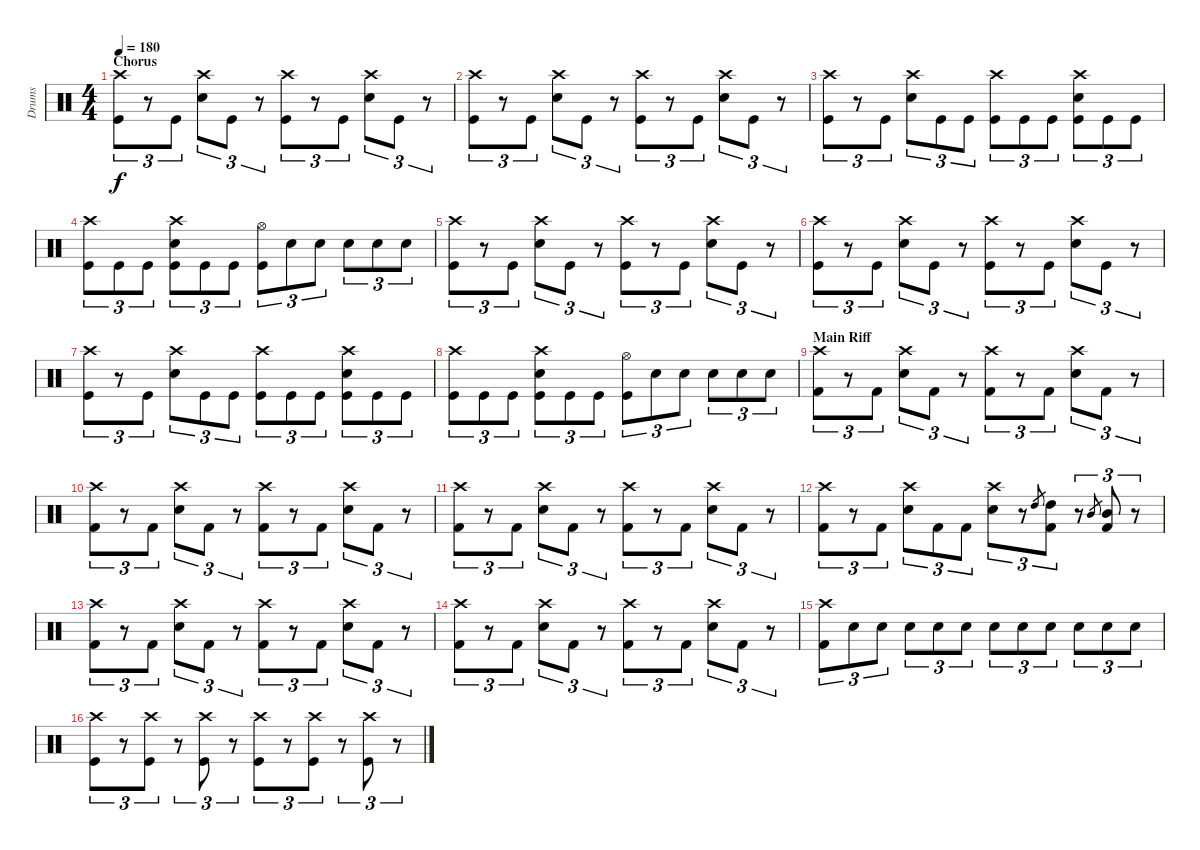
\track ("Drums" "Drums") {instrument percussion}
\staff {score}
\articulation defaults
\ts (4 4)
\section ("" "Chorus")
\tempo 180
\clef neutral
\ks c
("Crash high (hit)" "Kick (hit)").8{tu (3 2) dy f} r.8{tu (3 2)} "Kick (hit)".8{tu (3 2)} ("Crash high (hit)" "Snare (hit) 2").8{tu (3 2)} "Kick (hit)".8{tu (3 2)} r.8{tu (3 2)} ("Crash high (hit)" "Kick (hit)").8{tu (3 2)} r.8{tu (3 2)} "Kick (hit)".8{tu (3 2)} ("Crash high (hit)" "Snare (hit) 2").8{tu (3 2)} "Kick (hit)".8{tu (3 2)} r.8{tu (3 2)} |
("Crash high (hit)" "Kick (hit)").8{tu (3 2)} r.8{tu (3 2)} "Kick (hit)".8{tu (3 2)} ("Crash high (hit)" "Snare (hit) 2").8{tu (3 2)} "Kick (hit)".8{tu (3 2)} r.8{tu (3 2)} ("Crash high (hit)" "Kick (hit)").8{tu (3 2)} r.8{tu (3 2)} "Kick (hit)".8{tu (3 2)} ("Crash high (hit)" "Snare (hit) 2").8{tu (3 2)} "Kick (hit)".8{tu (3 2)} r.8{tu (3 2)} |
("Crash high (hit)" "Kick (hit)").8{tu (3 2)} r.8{tu (3 2)} "Kick (hit)".8{tu (3 2)} ("Crash high (hit)" "Snare (hit) 2").8{tu (3 2)} "Kick (hit)".8{tu (3 2)} "Kick (hit)".8{tu (3 2)} ("Crash high (hit)" "Kick (hit)").8{tu (3 2)} "Kick (hit)".8{tu (3 2)} "Kick (hit)".8{tu (3 2)} ("Crash high (hit)" "Snare (hit) 2" "Kick (hit)").8{tu (3 2)} "Kick (hit)".8{tu (3 2)} "Kick (hit)".8{tu (3 2)} |
("Crash high (hit)" "Kick (hit)").8{tu (3 2)} "Kick (hit)".8{tu (3 2)} "Kick (hit)".8{tu (3 2)} ("Crash high (hit)" "Snare (hit) 2" "Kick (hit)").8{tu (3 2)} "Kick (hit)".8{tu (3 2)} "Kick (hit)".8{tu (3 2)} ("Hi-Hat (open)" "Kick (hit)").8{tu (3 2)} "Snare (hit) 2".8{tu (3 2)} "Snare (hit) 2".8{tu (3 2)} "Snare (hit) 2".8{tu (3 2)} "Snare (hit) 2".8{tu (3 2)} "Snare (hit) 2".8{tu (3 2)} |
("Crash high (hit)" "Kick (hit)").8{tu (3 2)} r.8{tu (3 2)} "Kick (hit)".8{tu (3 2)} ("Crash high (hit)" "Snare (hit) 2").8{tu (3 2)} "Kick (hit)".8{tu (3 2)} r.8{tu (3 2)} ("Crash high (hit)" "Kick (hit)").8{tu (3 2)} r.8{tu (3 2)} "Kick (hit)".8{tu (3 2)} ("Crash high (hit)" "Snare (hit) 2").8{tu (3 2)} "Kick (hit)".8{tu (3 2)} r.8{tu (3 2)} |
("Crash high (hit)" "Kick (hit)").8{tu (3 2)} r.8{tu (3 2)} "Kick (hit)".8{tu (3 2)} ("Crash high (hit)" "Snare (hit) 2").8{tu (3 2)} "Kick (hit)".8{tu (3 2)} r.8{tu (3 2)} ("Crash high (hit)" "Kick (hit)").8{tu (3 2)} r.8{tu (3 2)} "Kick (hit)".8{tu (3 2)} ("Crash high (hit)" "Snare (hit) 2").8{tu (3 2)} "Kick (hit)".8{tu (3 2)} r.8{tu (3 2)} |
("Crash high (hit)" "Kick (hit)").8{tu (3 2)} r.8{tu (3 2)} "Kick (hit)".8{tu (3 2)} ("Crash high (hit)" "Snare (hit) 2").8{tu (3 2)} "Kick (hit)".8{tu (3 2)} "Kick (hit)".8{tu (3 2)} ("Crash high (hit)" "Kick (hit)").8{tu (3 2)} "Kick (hit)".8{tu (3 2)} "Kick (hit)".8{tu (3 2)} ("Crash high (hit)" "Snare (hit) 2" "Kick (hit)").8{tu (3 2)} "Kick (hit)".8{tu (3 2)} "Kick (hit)".8{tu (3 2)} |
("Crash high (hit)" "Kick (hit)").8{tu (3 2)} "Kick (hit)".8{tu (3 2)} "Kick (hit)".8{tu (3 2)} ("Crash high (hit)" "Snare (hit) 2" "Kick (hit)").8{tu (3 2)} "Kick (hit)".8{tu (3 2)} "Kick (hit)".8{tu (3 2)} ("Hi-Hat (open)" "Kick (hit)").8{tu (3 2)} "Snare (hit) 2".8{tu (3 2)} "Snare (hit) 2".8{tu (3 2)} "Snare (hit) 2".8{tu (3 2)} "Snare (hit) 2".8{tu (3 2)} "Snare (hit) 2".8{tu (3 2)} |
\section ("" "Main Riff")
("Crash high (hit)" "Kick (hit) 2").8{tu (3 2)} r.8{tu (3 2)} "Kick (hit) 2".8{tu (3 2)} ("Crash high (hit)" "Electric Snare (hit)").8{tu (3 2)} "Kick (hit) 2".8{tu (3 2)} r.8{tu (3 2)} ("Crash high (hit)" "Kick (hit) 2").8{tu (3 2)} r.8{tu (3 2)} "Kick (hit) 2".8{tu (3 2)} ("Crash high (hit)" "Electric Snare (hit)").8{tu (3 2)} "Kick (hit) 2".8{tu (3 2)} r.8{tu (3 2)} |
("Crash high (hit)" "Kick (hit) 2").8{tu (3 2)} r.8{tu (3 2)} "Kick (hit) 2".8{tu (3 2)} ("Crash high (hit)" "Electric Snare (hit)").8{tu (3 2)} "Kick (hit) 2".8{tu (3 2)} r.8{tu (3 2)} ("Crash high (hit)" "Kick (hit) 2").8{tu (3 2)} r.8{tu (3 2)} "Kick (hit) 2".8{tu (3 2)} ("Crash high (hit)" "Electric Snare (hit)").8{tu (3 2)} "Kick (hit) 2".8{tu (3 2)} r.8{tu (3 2)} |
("Crash high (hit)" "Kick (hit) 2").8{tu (3 2)} r.8{tu (3 2)} "Kick (hit) 2".8{tu (3 2)} ("Crash high (hit)" "Electric Snare (hit)").8{tu (3 2)} "Kick (hit) 2".8{tu (3 2)} r.8{tu (3 2)} ("Crash high (hit)" "Kick (hit) 2").8{tu (3 2)} r.8{tu (3 2)} "Kick (hit) 2".8{tu (3 2)} ("Crash high (hit)" "Electric Snare (hit)").8{tu (3 2)} "Kick (hit) 2".8{tu (3 2)} r.8{tu (3 2)} |
("Crash high (hit)" "Kick (hit) 2").8{tu (3 2)} r.8{tu (3 2)} "Kick (hit) 2".8{tu (3 2)} ("Crash high (hit)" "Electric Snare (hit)").8{tu (3 2)} "Kick (hit) 2".8{tu (3 2)} "Kick (hit) 2".8{tu (3 2)} ("Crash high (hit)" "Electric Snare (hit)").8{tu (3 2)} r.8{tu (3 2)} "High Tom (hit)".8{gr} ("High Tom (hit)" "Kick (hit) 2").8{tu (3 2)} r.8{tu (3 2)} "Mid Tom (hit)".8{gr} ("Mid Tom (hit)" "Kick (hit) 2").8{tu (3 2)} r.8{tu (3 2)} |
("Crash high (hit)" "Kick (hit) 2").8{tu (3 2)} r.8{tu (3 2)} "Kick (hit) 2".8{tu (3 2)} ("Crash high (hit)" "Electric Snare (hit)").8{tu (3 2)} "Kick (hit) 2".8{tu (3 2)} r.8{tu (3 2)} ("Crash high (hit)" "Kick (hit) 2").8{tu (3 2)} r.8{tu (3 2)} "Kick (hit) 2".8{tu (3 2)} ("Crash high (hit)" "Electric Snare (hit)").8{tu (3 2)} "Kick (hit) 2".8{tu (3 2)} r.8{tu (3 2)} |
("Crash high (hit)" "Kick (hit) 2").8{tu (3 2)} r.8{tu (3 2)} "Kick (hit) 2".8{tu (3 2)} ("Crash high (hit)" "Electric Snare (hit)").8{tu (3 2)} "Kick (hit) 2".8{tu (3 2)} r.8{tu (3 2)} ("Crash high (hit)" "Kick (hit) 2").8{tu (3 2)} r.8{tu (3 2)} "Kick (hit) 2".8{tu (3 2)} ("Crash high (hit)" "Electric Snare (hit)").8{tu (3 2)} "Kick (hit) 2".8{tu (3 2)} r.8{tu (3 2)} |
("Crash high (hit)" "Kick (hit) 2").8{tu (3 2)} "Electric Snare (hit)".8{tu (3 2)} "Electric Snare (hit)".8{tu (3 2)} "Electric Snare (hit)".8{tu (3 2)} "Electric Snare (hit)".8{tu (3 2)} "Electric Snare (hit)".8{tu (3 2)} "Electric Snare (hit)".8{tu (3 2)} "Electric Snare (hit)".8{tu (3 2)} "Electric Snare (hit)".8{tu (3 2)} "Electric Snare (hit)".8{tu (3 2)} "Electric Snare (hit)".8{tu (3 2)} "Electric Snare (hit)".8{tu (3 2)} |
("Crash high (hit)" "Kick (hit)").8{tu (3 2)} r.8{tu (3 2)} ("Crash high (hit)" "Kick (hit)").8{tu (3 2)} r.8{tu (3 2)} ("Crash high (hit)" "Kick (hit)").8{tu (3 2)} r.8{tu (3 2)} ("Crash high (hit)" "Kick (hit)").8{tu (3 2)} r.8{tu (3 2)} ("Crash high (hit)" "Kick (hit)").8{tu (3 2)} r.8{tu (3 2)} ("Crash high (hit)" "Kick (hit)").8{tu (3 2)} r.8{tu (3 2)}
